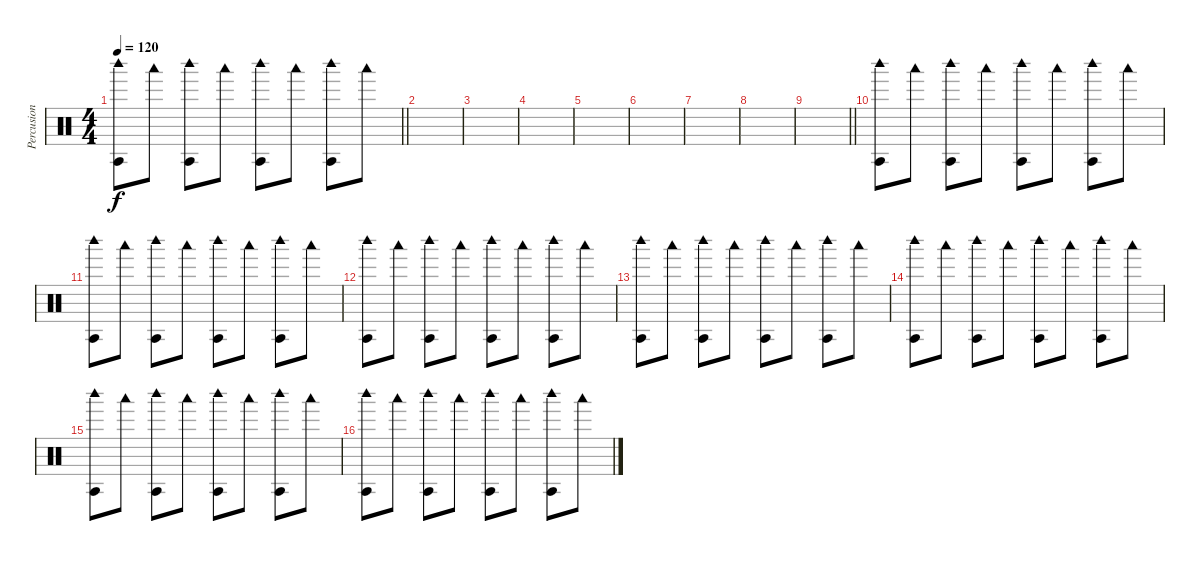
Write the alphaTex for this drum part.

\track ("Percusion" "Percusion") {instrument percussion}
\staff
\articulation defaults
\ts (4 4)
\tempo 120
\clef neutral
\barLineRight lightlight
\ks c
("Woodblock high (hit)" "Agogo tow (hit)").8{dy f} "Woodblock low (hit)".8 ("Woodblock high (hit)" "Agogo tow (hit)").8 "Woodblock low (hit)".8 ("Woodblock high (hit)" "Agogo tow (hit)").8 "Woodblock low (hit)".8 ("Woodblock high (hit)" "Agogo tow (hit)").8 "Woodblock low (hit)".8 |
|
|
|
|
|
|
|
\barLineRight lightlight
|
("Woodblock high (hit)" "Agogo tow (hit)").8 "Woodblock low (hit)".8 ("Woodblock high (hit)" "Agogo tow (hit)").8 "Woodblock low (hit)".8 ("Woodblock high (hit)" "Agogo tow (hit)").8 "Woodblock low (hit)".8 ("Woodblock high (hit)" "Agogo tow (hit)").8 "Woodblock low (hit)".8 |
("Woodblock high (hit)" "Agogo tow (hit)").8 "Woodblock low (hit)".8 ("Woodblock high (hit)" "Agogo tow (hit)").8 "Woodblock low (hit)".8 ("Woodblock high (hit)" "Agogo tow (hit)").8 "Woodblock low (hit)".8 ("Woodblock high (hit)" "Agogo tow (hit)").8 "Woodblock low (hit)".8 |
("Woodblock high (hit)" "Agogo tow (hit)").8 "Woodblock low (hit)".8 ("Woodblock high (hit)" "Agogo tow (hit)").8 "Woodblock low (hit)".8 ("Woodblock high (hit)" "Agogo tow (hit)").8 "Woodblock low (hit)".8 ("Woodblock high (hit)" "Agogo tow (hit)").8 "Woodblock low (hit)".8 |
("Woodblock high (hit)" "Agogo tow (hit)").8 "Woodblock low (hit)".8 ("Woodblock high (hit)" "Agogo tow (hit)").8 "Woodblock low (hit)".8 ("Woodblock high (hit)" "Agogo tow (hit)").8 "Woodblock low (hit)".8 ("Woodblock high (hit)" "Agogo tow (hit)").8 "Woodblock low (hit)".8 |
("Woodblock high (hit)" "Agogo tow (hit)").8 "Woodblock low (hit)".8 ("Woodblock high (hit)" "Agogo tow (hit)").8 "Woodblock low (hit)".8 ("Woodblock high (hit)" "Agogo tow (hit)").8 "Woodblock low (hit)".8 ("Woodblock high (hit)" "Agogo tow (hit)").8 "Woodblock low (hit)".8 |
("Woodblock high (hit)" "Agogo tow (hit)").8 "Woodblock low (hit)".8 ("Woodblock high (hit)" "Agogo tow (hit)").8 "Woodblock low (hit)".8 ("Woodblock high (hit)" "Agogo tow (hit)").8 "Woodblock low (hit)".8 ("Woodblock high (hit)" "Agogo tow (hit)").8 "Woodblock low (hit)".8 |
("Woodblock high (hit)" "Agogo tow (hit)").8 "Woodblock low (hit)".8 ("Woodblock high (hit)" "Agogo tow (hit)").8 "Woodblock low (hit)".8 ("Woodblock high (hit)" "Agogo tow (hit)").8 "Woodblock low (hit)".8 ("Woodblock high (hit)" "Agogo tow (hit)").8 "Woodblock low (hit)".8
